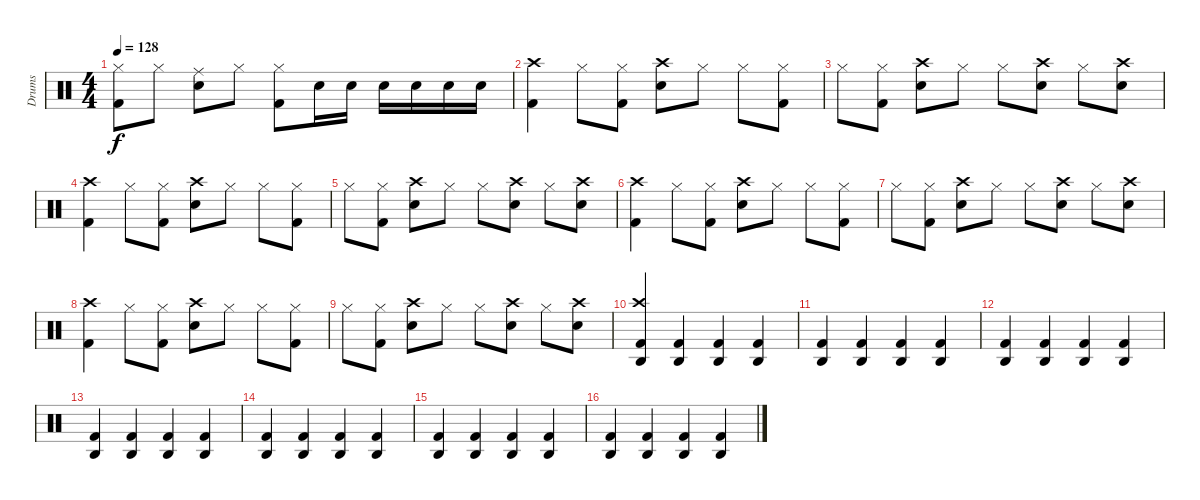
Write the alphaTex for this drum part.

\track ("Drums" "Drums") {instrument percussion}
\staff {score}
\articulation defaults
\ts (4 4)
\tempo 128
\clef neutral
\ks c
("Hi-Hat (closed)" "Kick (hit) 2").8{dy f} "Hi-Hat (closed)".8 ("Ride (middle)" "Snare (hit) 2").8 "Hi-Hat (closed)".8 ("Hi-Hat (closed)" "Kick (hit) 2").8 "Snare (hit) 2".16 "Snare (hit) 2".16 "Snare (hit) 2".16 "Snare (hit) 2".16 "Snare (hit) 2".16 "Snare (hit) 2".16 |
("Crash high (hit)" "Kick (hit) 2").4 "Hi-Hat (closed)".8 ("Hi-Hat (closed)" "Kick (hit) 2").8 ("Crash high (hit)" "Snare (hit) 2").8 "Hi-Hat (closed)".8 "Hi-Hat (closed)".8 ("Hi-Hat (closed)" "Kick (hit) 2").8 |
"Hi-Hat (closed)".8 ("Hi-Hat (closed)" "Kick (hit) 2").8 ("Crash high (hit)" "Snare (hit) 2").8 "Hi-Hat (closed)".8 "Hi-Hat (closed)".8 ("Crash high (hit)" "Snare (hit) 2").8 "Hi-Hat (closed)".8 ("Crash high (hit)" "Snare (hit) 2").8 |
("Crash high (hit)" "Kick (hit) 2").4 "Hi-Hat (closed)".8 ("Hi-Hat (closed)" "Kick (hit) 2").8 ("Crash high (hit)" "Snare (hit) 2").8 "Hi-Hat (closed)".8 "Hi-Hat (closed)".8 ("Hi-Hat (closed)" "Kick (hit) 2").8 |
"Hi-Hat (closed)".8 ("Hi-Hat (closed)" "Kick (hit) 2").8 ("Crash high (hit)" "Snare (hit) 2").8 "Hi-Hat (closed)".8 "Hi-Hat (closed)".8 ("Crash high (hit)" "Snare (hit) 2").8 "Hi-Hat (closed)".8 ("Crash high (hit)" "Snare (hit) 2").8 |
("Crash high (hit)" "Kick (hit) 2").4 "Hi-Hat (closed)".8 ("Hi-Hat (closed)" "Kick (hit) 2").8 ("Crash high (hit)" "Snare (hit) 2").8 "Hi-Hat (closed)".8 "Hi-Hat (closed)".8 ("Hi-Hat (closed)" "Kick (hit) 2").8 |
"Hi-Hat (closed)".8 ("Hi-Hat (closed)" "Kick (hit) 2").8 ("Crash high (hit)" "Snare (hit) 2").8 "Hi-Hat (closed)".8 "Hi-Hat (closed)".8 ("Crash high (hit)" "Snare (hit) 2").8 "Hi-Hat (closed)".8 ("Crash high (hit)" "Snare (hit) 2").8 |
("Crash high (hit)" "Kick (hit) 2").4 "Hi-Hat (closed)".8 ("Hi-Hat (closed)" "Kick (hit) 2").8 ("Crash high (hit)" "Snare (hit) 2").8 "Hi-Hat (closed)".8 "Hi-Hat (closed)".8 ("Hi-Hat (closed)" "Kick (hit) 2").8 |
"Hi-Hat (closed)".8 ("Hi-Hat (closed)" "Kick (hit) 2").8 ("Crash high (hit)" "Snare (hit) 2").8 "Hi-Hat (closed)".8 "Hi-Hat (closed)".8 ("Crash high (hit)" "Snare (hit) 2").8 "Hi-Hat (closed)".8 ("Crash high (hit)" "Snare (hit) 2").8 |
("Agogo high (hit)" "Kick (hit) 2" "Crash high (hit)").4 ("Agogo high (hit)" "Kick (hit) 2").4 ("Agogo high (hit)" "Kick (hit) 2").4 ("Agogo high (hit)" "Kick (hit) 2").4 |
("Agogo high (hit)" "Kick (hit) 2").4 ("Agogo high (hit)" "Kick (hit) 2").4 ("Agogo high (hit)" "Kick (hit) 2").4 ("Agogo high (hit)" "Kick (hit) 2").4 |
("Agogo high (hit)" "Kick (hit) 2").4 ("Agogo high (hit)" "Kick (hit) 2").4 ("Agogo high (hit)" "Kick (hit) 2").4 ("Agogo high (hit)" "Kick (hit) 2").4 |
("Agogo high (hit)" "Kick (hit) 2").4 ("Agogo high (hit)" "Kick (hit) 2").4 ("Agogo high (hit)" "Kick (hit) 2").4 ("Agogo high (hit)" "Kick (hit) 2").4 |
("Agogo high (hit)" "Kick (hit) 2").4 ("Agogo high (hit)" "Kick (hit) 2").4 ("Agogo high (hit)" "Kick (hit) 2").4 ("Agogo high (hit)" "Kick (hit) 2").4 |
("Agogo high (hit)" "Kick (hit) 2").4 ("Agogo high (hit)" "Kick (hit) 2").4 ("Agogo high (hit)" "Kick (hit) 2").4 ("Agogo high (hit)" "Kick (hit) 2").4 |
("Agogo high (hit)" "Kick (hit) 2").4 ("Agogo high (hit)" "Kick (hit) 2").4 ("Agogo high (hit)" "Kick (hit) 2").4 ("Agogo high (hit)" "Kick (hit) 2").4
